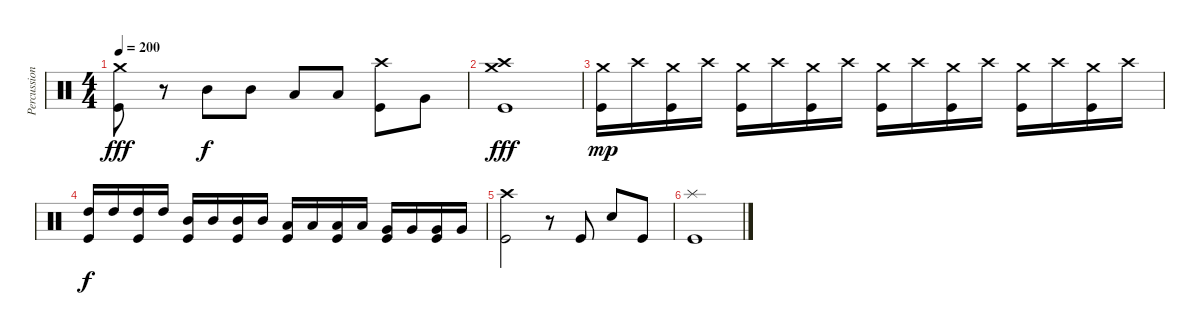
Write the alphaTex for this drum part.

\track ("Percussion" "Percussion") {instrument percussion}
\staff {score}
\articulation defaults
\ts (4 4)
\tempo 200
\clef neutral
\ks c
("Crash medium (hit)" "Kick (hit)").8{dy fff} r.8 "Mid Tom (hit)".8{dy f} "Mid Tom (hit)".8 "Low Tom (hit)".8 "Low Tom (hit)".8 ("Crash high (hit)" "Kick (hit)").8 "Very Low Tom (hit)".8 |
("Crash medium (hit)" "Crash high (hit)" "Kick (hit)").1{dy fff} |
("Crash medium (hit)" "Kick (hit)").16{dy mp} "Crash high (hit)".16 ("Crash medium (hit)" "Kick (hit)").16 "Crash high (hit)".16 ("Crash medium (hit)" "Kick (hit)").16 "Crash high (hit)".16 ("Crash medium (hit)" "Kick (hit)").16 "Crash high (hit)".16 ("Crash medium (hit)" "Kick (hit)").16 "Crash high (hit)".16 ("Crash medium (hit)" "Kick (hit)").16 "Crash high (hit)".16 ("Crash medium (hit)" "Kick (hit)").16 "Crash high (hit)".16 ("Crash medium (hit)" "Kick (hit)").16 "Crash high (hit)".16 |
("High Tom (hit)" "Kick (hit)").16{dy f} "High Tom (hit)".16 ("High Tom (hit)" "Kick (hit)").16 "High Tom (hit)".16 ("Mid Tom (hit)" "Kick (hit)").16 "Mid Tom (hit)".16 ("Mid Tom (hit)" "Kick (hit)").16 "Mid Tom (hit)".16 ("Low Tom (hit)" "Kick (hit)").16 "Low Tom (hit)".16 ("Low Tom (hit)" "Kick (hit)").16 "Low Tom (hit)".16 ("Very Low Tom (hit)" "Kick (hit)").16 "Very Low Tom (hit)".16 ("Very Low Tom (hit)" "Kick (hit)").16 "Very Low Tom (hit)".16 |
("Crash high (hit)" "Kick (hit)").2 r.8 "Kick (hit)".8 "Electric Snare (hit)".8 "Kick (hit)".8 |
("Splash (hit)" "Kick (hit)").1
